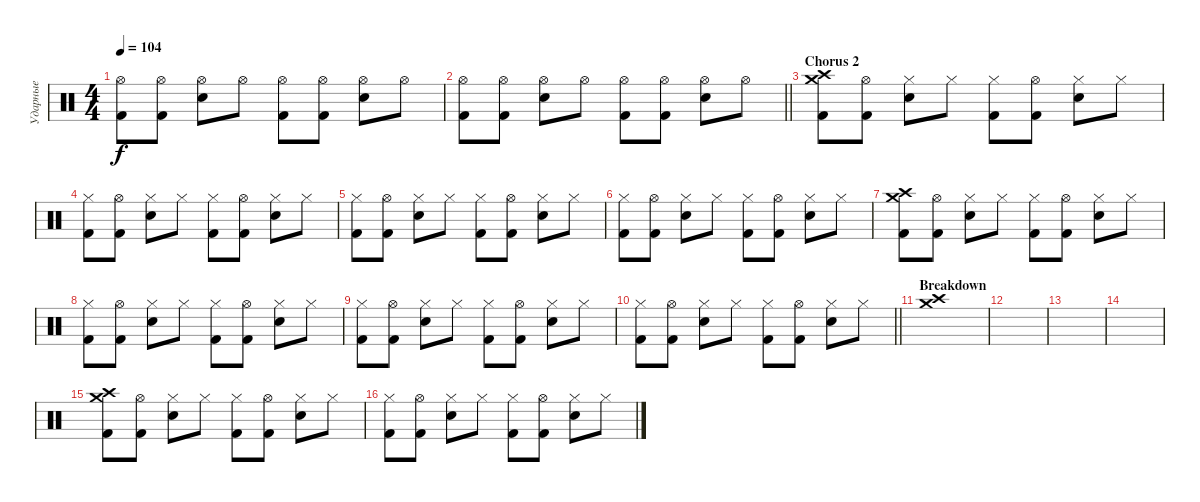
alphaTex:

\track ("Ударные" "Ударные") {instrument percussion}
\staff {score}
\articulation defaults
\ts (4 4)
\tempo 104
\clef neutral
\ks c
("Hi-Hat (open)" "Kick (hit) 2").8{dy f} ("Hi-Hat (open)" "Kick (hit) 2").8 ("Hi-Hat (open)" "Electric Snare (hit)").8 "Hi-Hat (open)".8 ("Hi-Hat (open)" "Kick (hit) 2").8 ("Hi-Hat (open)" "Kick (hit) 2").8 ("Hi-Hat (open)" "Electric Snare (hit)").8 "Hi-Hat (open)".8 |
\barLineRight lightlight
("Hi-Hat (open)" "Kick (hit) 2").8 ("Hi-Hat (open)" "Kick (hit) 2").8 ("Hi-Hat (open)" "Electric Snare (hit)").8 "Hi-Hat (open)".8 ("Hi-Hat (open)" "Kick (hit) 2").8 ("Hi-Hat (open)" "Kick (hit) 2").8 ("Hi-Hat (open)" "Electric Snare (hit)").8 "Hi-Hat (open)".8 |
\section ("" "Chorus 2")
("Crash high (hit)" "Crash medium (hit)" "Kick (hit) 2").8 ("Hi-Hat (open)" "Kick (hit) 2").8 ("Hi-Hat (closed)" "Electric Snare (hit)").8 "Hi-Hat (closed)".8 ("Hi-Hat (closed)" "Kick (hit) 2").8 ("Hi-Hat (open)" "Kick (hit) 2").8 ("Hi-Hat (closed)" "Electric Snare (hit)").8 "Hi-Hat (closed)".8 |
("Hi-Hat (closed)" "Kick (hit) 2").8 ("Hi-Hat (open)" "Kick (hit) 2").8 ("Hi-Hat (closed)" "Electric Snare (hit)").8 "Hi-Hat (closed)".8 ("Hi-Hat (closed)" "Kick (hit) 2").8 ("Hi-Hat (open)" "Kick (hit) 2").8 ("Hi-Hat (closed)" "Electric Snare (hit)").8 "Hi-Hat (closed)".8 |
("Hi-Hat (closed)" "Kick (hit) 2").8 ("Hi-Hat (open)" "Kick (hit) 2").8 ("Hi-Hat (closed)" "Electric Snare (hit)").8 "Hi-Hat (closed)".8 ("Hi-Hat (closed)" "Kick (hit) 2").8 ("Hi-Hat (open)" "Kick (hit) 2").8 ("Hi-Hat (closed)" "Electric Snare (hit)").8 "Hi-Hat (closed)".8 |
("Hi-Hat (closed)" "Kick (hit) 2").8 ("Hi-Hat (open)" "Kick (hit) 2").8 ("Hi-Hat (closed)" "Electric Snare (hit)").8 "Hi-Hat (closed)".8 ("Hi-Hat (closed)" "Kick (hit) 2").8 ("Hi-Hat (open)" "Kick (hit) 2").8 ("Hi-Hat (closed)" "Electric Snare (hit)").8 "Hi-Hat (closed)".8 |
("Crash high (hit)" "Crash medium (hit)" "Kick (hit) 2").8 ("Hi-Hat (open)" "Kick (hit) 2").8 ("Hi-Hat (closed)" "Electric Snare (hit)").8 "Hi-Hat (closed)".8 ("Hi-Hat (closed)" "Kick (hit) 2").8 ("Hi-Hat (open)" "Kick (hit) 2").8 ("Hi-Hat (closed)" "Electric Snare (hit)").8 "Hi-Hat (closed)".8 |
("Hi-Hat (closed)" "Kick (hit) 2").8 ("Hi-Hat (open)" "Kick (hit) 2").8 ("Hi-Hat (closed)" "Electric Snare (hit)").8 "Hi-Hat (closed)".8 ("Hi-Hat (closed)" "Kick (hit) 2").8 ("Hi-Hat (open)" "Kick (hit) 2").8 ("Hi-Hat (closed)" "Electric Snare (hit)").8 "Hi-Hat (closed)".8 |
("Hi-Hat (closed)" "Kick (hit) 2").8 ("Hi-Hat (open)" "Kick (hit) 2").8 ("Hi-Hat (closed)" "Electric Snare (hit)").8 "Hi-Hat (closed)".8 ("Hi-Hat (closed)" "Kick (hit) 2").8 ("Hi-Hat (open)" "Kick (hit) 2").8 ("Hi-Hat (closed)" "Electric Snare (hit)").8 "Hi-Hat (closed)".8 |
\barLineRight lightlight
("Hi-Hat (closed)" "Kick (hit) 2").8 ("Hi-Hat (open)" "Kick (hit) 2").8 ("Hi-Hat (closed)" "Electric Snare (hit)").8 "Hi-Hat (closed)".8 ("Hi-Hat (closed)" "Kick (hit) 2").8 ("Hi-Hat (open)" "Kick (hit) 2").8 ("Hi-Hat (closed)" "Electric Snare (hit)").8 "Hi-Hat (closed)".8 |
\section ("" "Breakdown")
("Crash high (hit)" "Crash medium (hit)").1 |
|
|
|
("Crash high (hit)" "Crash medium (hit)" "Kick (hit) 2").8 ("Hi-Hat (open)" "Kick (hit) 2").8 ("Hi-Hat (closed)" "Electric Snare (hit)").8 "Hi-Hat (closed)".8 ("Hi-Hat (closed)" "Kick (hit) 2").8 ("Hi-Hat (open)" "Kick (hit) 2").8 ("Hi-Hat (closed)" "Electric Snare (hit)").8 "Hi-Hat (closed)".8 |
("Hi-Hat (closed)" "Kick (hit) 2").8 ("Hi-Hat (open)" "Kick (hit) 2").8 ("Hi-Hat (closed)" "Electric Snare (hit)").8 "Hi-Hat (closed)".8 ("Hi-Hat (closed)" "Kick (hit) 2").8 ("Hi-Hat (open)" "Kick (hit) 2").8 ("Hi-Hat (closed)" "Electric Snare (hit)").8 "Hi-Hat (closed)".8
